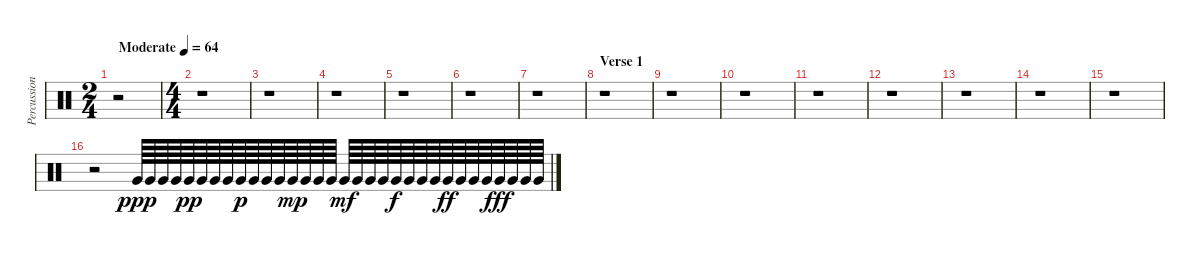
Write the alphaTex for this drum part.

\track ("Percussion" "Percussion") {instrument percussion}
\staff {score}
\articulation defaults
\ts (2 4)
\tempo (64 "Moderate")
\clef neutral
\ks c
r.2{dy ppp} |
\ts (4 4)
r.1 |
r.1 |
r.1 |
r.1 |
r.1 |
r.1 |
\section ("" "Verse 1")
r.1 |
r.1 |
r.1 |
r.1 |
r.1 |
r.1 |
r.1 |
r.1 |
r.2 "Very Low Tom (hit)".64 "Very Low Tom (hit)".64 "Very Low Tom (hit)".64 "Very Low Tom (hit)".64 "Very Low Tom (hit)".64{dy pp} "Very Low Tom (hit)".64 "Very Low Tom (hit)".64 "Very Low Tom (hit)".64 "Very Low Tom (hit)".64{dy p} "Very Low Tom (hit)".64 "Very Low Tom (hit)".64 "Very Low Tom (hit)".64 "Very Low Tom (hit)".64{dy mp} "Very Low Tom (hit)".64 "Very Low Tom (hit)".64 "Very Low Tom (hit)".64 "Very Low Tom (hit)".64{dy mf} "Very Low Tom (hit)".64 "Very Low Tom (hit)".64 "Very Low Tom (hit)".64 "Very Low Tom (hit)".64{dy f} "Very Low Tom (hit)".64 "Very Low Tom (hit)".64 "Very Low Tom (hit)".64 "Very Low Tom (hit)".64{dy ff} "Very Low Tom (hit)".64 "Very Low Tom (hit)".64 "Very Low Tom (hit)".64 "Very Low Tom (hit)".64{dy fff} "Very Low Tom (hit)".64 "Very Low Tom (hit)".64 "Very Low Tom (hit)".64
